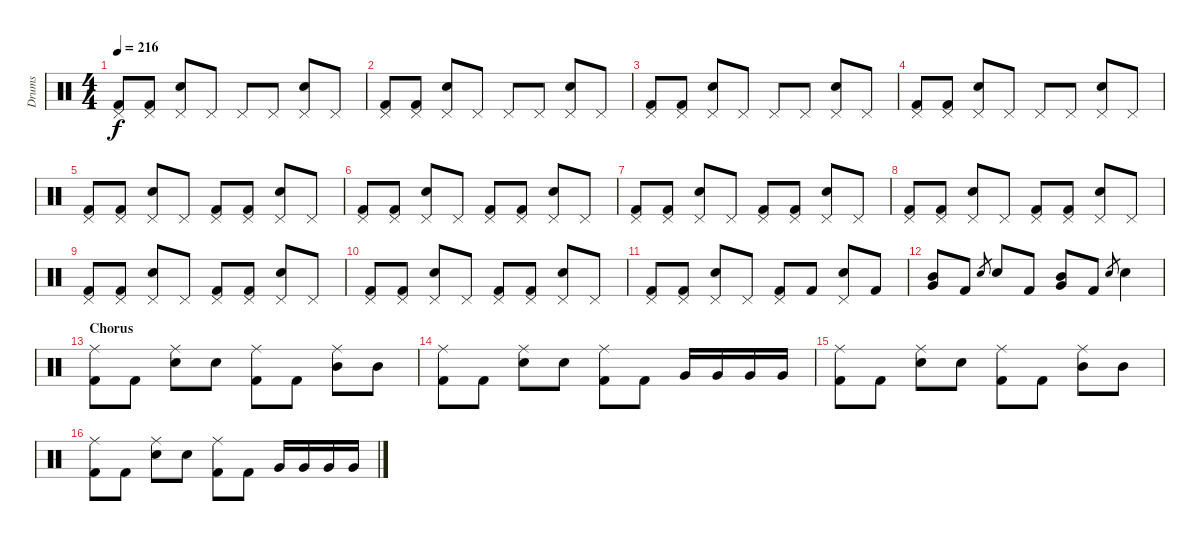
\track ("Drums" "Drums") {instrument percussion}
\staff {score}
\articulation defaults
\ts (4 4)
\tempo 216
\clef neutral
\ks c
("Pedal Hi-Hat (hit)" "Kick (hit) 2").8{dy f} ("Pedal Hi-Hat (hit)" "Kick (hit) 2").8 ("Pedal Hi-Hat (hit)" "Electric Snare (hit)").8 "Pedal Hi-Hat (hit)".8 "Pedal Hi-Hat (hit)".8 "Pedal Hi-Hat (hit)".8 ("Pedal Hi-Hat (hit)" "Electric Snare (hit)").8 "Pedal Hi-Hat (hit)".8 |
("Pedal Hi-Hat (hit)" "Kick (hit) 2").8 ("Pedal Hi-Hat (hit)" "Kick (hit) 2").8 ("Pedal Hi-Hat (hit)" "Electric Snare (hit)").8 "Pedal Hi-Hat (hit)".8 "Pedal Hi-Hat (hit)".8 "Pedal Hi-Hat (hit)".8 ("Pedal Hi-Hat (hit)" "Electric Snare (hit)").8 "Pedal Hi-Hat (hit)".8 |
("Pedal Hi-Hat (hit)" "Kick (hit) 2").8 ("Pedal Hi-Hat (hit)" "Kick (hit) 2").8 ("Pedal Hi-Hat (hit)" "Electric Snare (hit)").8 "Pedal Hi-Hat (hit)".8 "Pedal Hi-Hat (hit)".8 "Pedal Hi-Hat (hit)".8 ("Pedal Hi-Hat (hit)" "Electric Snare (hit)").8 "Pedal Hi-Hat (hit)".8 |
("Pedal Hi-Hat (hit)" "Kick (hit) 2").8 ("Pedal Hi-Hat (hit)" "Kick (hit) 2").8 ("Pedal Hi-Hat (hit)" "Electric Snare (hit)").8 "Pedal Hi-Hat (hit)".8 "Pedal Hi-Hat (hit)".8 "Pedal Hi-Hat (hit)".8 ("Pedal Hi-Hat (hit)" "Electric Snare (hit)").8 "Pedal Hi-Hat (hit)".8 |
("Pedal Hi-Hat (hit)" "Kick (hit) 2").8 ("Pedal Hi-Hat (hit)" "Kick (hit) 2").8 ("Pedal Hi-Hat (hit)" "Electric Snare (hit)").8 "Pedal Hi-Hat (hit)".8 ("Pedal Hi-Hat (hit)" "Kick (hit) 2").8 ("Pedal Hi-Hat (hit)" "Kick (hit) 2").8 ("Pedal Hi-Hat (hit)" "Electric Snare (hit)").8 "Pedal Hi-Hat (hit)".8 |
("Pedal Hi-Hat (hit)" "Kick (hit) 2").8 ("Pedal Hi-Hat (hit)" "Kick (hit) 2").8 ("Pedal Hi-Hat (hit)" "Electric Snare (hit)").8 "Pedal Hi-Hat (hit)".8 ("Pedal Hi-Hat (hit)" "Kick (hit) 2").8 ("Pedal Hi-Hat (hit)" "Kick (hit) 2").8 ("Pedal Hi-Hat (hit)" "Electric Snare (hit)").8 "Pedal Hi-Hat (hit)".8 |
("Pedal Hi-Hat (hit)" "Kick (hit) 2").8 ("Pedal Hi-Hat (hit)" "Kick (hit) 2").8 ("Pedal Hi-Hat (hit)" "Electric Snare (hit)").8 "Pedal Hi-Hat (hit)".8 ("Pedal Hi-Hat (hit)" "Kick (hit) 2").8 ("Pedal Hi-Hat (hit)" "Kick (hit) 2").8 ("Pedal Hi-Hat (hit)" "Electric Snare (hit)").8 "Pedal Hi-Hat (hit)".8 |
("Pedal Hi-Hat (hit)" "Kick (hit) 2").8 ("Pedal Hi-Hat (hit)" "Kick (hit) 2").8 ("Pedal Hi-Hat (hit)" "Electric Snare (hit)").8 "Pedal Hi-Hat (hit)".8 ("Pedal Hi-Hat (hit)" "Kick (hit) 2").8 ("Pedal Hi-Hat (hit)" "Kick (hit) 2").8 ("Pedal Hi-Hat (hit)" "Electric Snare (hit)").8 "Pedal Hi-Hat (hit)".8 |
("Pedal Hi-Hat (hit)" "Kick (hit) 2").8 ("Pedal Hi-Hat (hit)" "Kick (hit) 2").8 ("Pedal Hi-Hat (hit)" "Electric Snare (hit)").8 "Pedal Hi-Hat (hit)".8 ("Pedal Hi-Hat (hit)" "Kick (hit) 2").8 ("Pedal Hi-Hat (hit)" "Kick (hit) 2").8 ("Pedal Hi-Hat (hit)" "Electric Snare (hit)").8 "Pedal Hi-Hat (hit)".8 |
("Pedal Hi-Hat (hit)" "Kick (hit) 2").8 ("Pedal Hi-Hat (hit)" "Kick (hit) 2").8 ("Pedal Hi-Hat (hit)" "Electric Snare (hit)").8 "Pedal Hi-Hat (hit)".8 ("Pedal Hi-Hat (hit)" "Kick (hit) 2").8 ("Pedal Hi-Hat (hit)" "Kick (hit) 2").8 ("Pedal Hi-Hat (hit)" "Electric Snare (hit)").8 "Pedal Hi-Hat (hit)".8 |
("Pedal Hi-Hat (hit)" "Kick (hit) 2").8 ("Pedal Hi-Hat (hit)" "Kick (hit) 2").8 ("Pedal Hi-Hat (hit)" "Electric Snare (hit)").8 "Pedal Hi-Hat (hit)".8 ("Pedal Hi-Hat (hit)" "Kick (hit) 2").8 "Kick (hit) 2".8 ("Pedal Hi-Hat (hit)" "Electric Snare (hit)").8 "Kick (hit) 2".8 |
("Mid Tom (hit)" "Very Low Tom (hit)").8 "Kick (hit) 2".8 "Electric Snare (hit)".8{gr} "Electric Snare (hit)".8 "Kick (hit) 2".8 ("Mid Tom (hit)" "Very Low Tom (hit)").8 "Kick (hit) 2".8 "Electric Snare (hit)".8{gr} "Electric Snare (hit)".4 |
\section ("" "Chorus")
("Ride (middle)" "Kick (hit) 2").8 "Kick (hit) 2".8 ("Ride (middle)" "Electric Snare (hit)").8 "Electric Snare (hit)".8 ("Ride (middle)" "Kick (hit) 2").8 "Kick (hit) 2".8 ("Ride (middle)" "Mid Tom (hit)").8 "Mid Tom (hit)".8 |
("Ride (middle)" "Kick (hit) 2").8 "Kick (hit) 2".8 ("Ride (middle)" "Electric Snare (hit)").8 "Electric Snare (hit)".8 ("Ride (middle)" "Kick (hit) 2").8 "Kick (hit) 2".8 "Very Low Tom (hit)".16 "Very Low Tom (hit)".16 "Very Low Tom (hit)".16 "Very Low Tom (hit)".16 |
("Ride (middle)" "Kick (hit) 2").8 "Kick (hit) 2".8 ("Ride (middle)" "Electric Snare (hit)").8 "Electric Snare (hit)".8 ("Ride (middle)" "Kick (hit) 2").8 "Kick (hit) 2".8 ("Ride (middle)" "Mid Tom (hit)").8 "Mid Tom (hit)".8 |
("Ride (middle)" "Kick (hit) 2").8 "Kick (hit) 2".8 ("Ride (middle)" "Electric Snare (hit)").8 "Electric Snare (hit)".8 ("Ride (middle)" "Kick (hit) 2").8 "Kick (hit) 2".8 "Very Low Tom (hit)".16 "Very Low Tom (hit)".16 "Very Low Tom (hit)".16 "Very Low Tom (hit)".16
